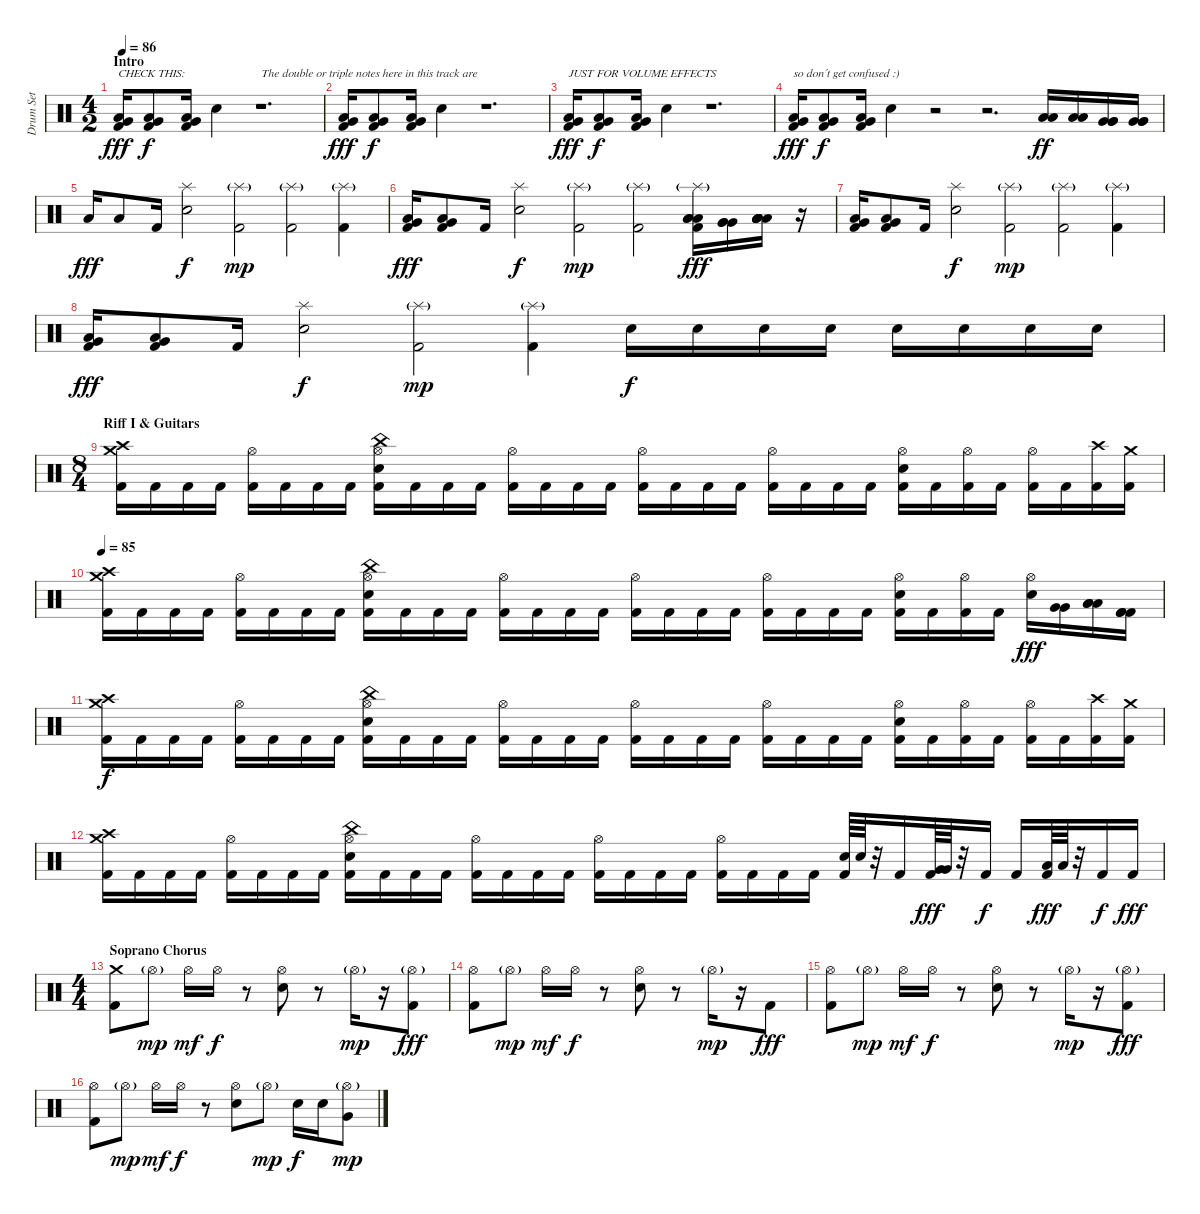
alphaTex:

\track ("Drum Set" "Drum Set") {instrument percussion}
\staff {score}
\articulation defaults
\ts (4 2)
\section ("" "Intro")
\tempo 86
\clef neutral
\ks c
("Very Low Tom (hit)" "Low Floor Tom (hit)" "Kick (hit) 2").16{txt "CHECK THIS:" dy fff} ("Very Low Tom (hit)" "Low Floor Tom (hit)" "Kick (hit) 2").8{dy f} ("Very Low Tom (hit)" "Low Floor Tom (hit)" "Kick (hit) 2").16 "Snare (hit) 2".4 r.1{d txt "The double or triple notes here in this track are "} |
("Very Low Tom (hit)" "Low Floor Tom (hit)" "Kick (hit) 2").16{dy fff} ("Very Low Tom (hit)" "Low Floor Tom (hit)" "Kick (hit) 2").8{dy f} ("Very Low Tom (hit)" "Low Floor Tom (hit)" "Kick (hit) 2").16 "Snare (hit) 2".4 r.1{d} |
("Very Low Tom (hit)" "Low Floor Tom (hit)" "Kick (hit) 2").16{txt "JUST FOR VOLUME EFFECTS" dy fff} ("Very Low Tom (hit)" "Low Floor Tom (hit)" "Kick (hit) 2").8{dy f} ("Very Low Tom (hit)" "Low Floor Tom (hit)" "Kick (hit) 2").16 "Snare (hit) 2".4 r.1{d} |
("Very Low Tom (hit)" "Low Floor Tom (hit)" "Kick (hit) 2").16{txt "so don´t get confused :)" dy fff} ("Very Low Tom (hit)" "Low Floor Tom (hit)" "Kick (hit) 2").8{dy f} ("Very Low Tom (hit)" "Low Floor Tom (hit)" "Kick (hit) 2").16 "Snare (hit) 2".4 r.2 r.2{d} ("Low Tom (hit)" "Low Tom (hit)").16{dy ff} ("Low Tom (hit)" "Low Tom (hit)").16 ("Very Low Tom (hit)" "Very Low Tom (hit)" "Very Low Tom (hit)").16 ("Very Low Tom (hit)" "Very Low Tom (hit)" "Very Low Tom (hit)").16 |
"Low Floor Tom (hit)".16{dy fff} "Low Floor Tom (hit)".8 "Kick (hit) 2".16 ("Splash (hit)" "Snare (hit) 2").2{dy f} ("Splash (hit)"{g} "Kick (hit) 2").2{dy mp} ("Splash (hit)"{g} "Kick (hit) 2").2 ("Splash (hit)"{g} "Kick (hit) 2").4 |
("Very Low Tom (hit)" "Low Floor Tom (hit)" "Kick (hit) 2").16{dy fff} ("Very Low Tom (hit)" "Low Floor Tom (hit)" "Kick (hit) 2").8 "Kick (hit) 2".16 ("Splash (hit)" "Snare (hit) 2").2{dy f} ("Splash (hit)"{g} "Kick (hit) 2").2{dy mp} ("Splash (hit)"{g} "Kick (hit) 2").2 ("Splash (hit)"{g} "Low Tom (hit)" "Low Tom (hit)" "Low Tom (hit)" "Kick (hit) 2").16{dy fff} ("Very Low Tom (hit)" "Very Low Tom (hit)" "Very Low Tom (hit)").16 ("Low Floor Tom (hit)" "Low Floor Tom (hit)" "Low Floor Tom (hit)" "Low Floor Tom (hit)" "Low Floor Tom (hit)").16 r.16 |
("Very Low Tom (hit)" "Low Floor Tom (hit)" "Kick (hit) 2").16 ("Very Low Tom (hit)" "Low Floor Tom (hit)" "Kick (hit) 2").8 "Kick (hit) 2".16 ("Splash (hit)" "Snare (hit) 2").2{dy f} ("Splash (hit)"{g} "Kick (hit) 2").2{dy mp} ("Splash (hit)"{g} "Kick (hit) 2").2 ("Splash (hit)"{g} "Kick (hit) 2").4 |
("Very Low Tom (hit)" "Low Floor Tom (hit)" "Kick (hit) 2").16{dy fff} ("Very Low Tom (hit)" "Low Floor Tom (hit)" "Kick (hit) 2").8 "Kick (hit) 2".16 ("Splash (hit)" "Snare (hit) 2").2{dy f} ("Splash (hit)"{g} "Kick (hit) 2").2{dy mp} ("Splash (hit)"{g} "Kick (hit) 2").4 "Snare (hit) 2".16{dy f} "Snare (hit) 2".16 "Snare (hit) 2".16 "Snare (hit) 2".16 "Snare (hit) 2".16 "Snare (hit) 2".16 "Snare (hit) 2".16 "Snare (hit) 2".16 |
\ts (8 4)
\section ("" "Riff I & Guitars")
("Crash medium (hit)" "Crash high (hit)" "Kick (hit) 2").16 "Kick (hit) 2".16 "Kick (hit) 2".16 "Kick (hit) 2".16 ("Hi-Hat (open)" "Kick (hit) 2").16 "Kick (hit) 2".16 "Kick (hit) 2".16 "Kick (hit) 2".16 ("China (hit)" "Hi-Hat (open)" "Snare (hit) 2" "Kick (hit) 2").16 "Kick (hit) 2".16 "Kick (hit) 2".16 "Kick (hit) 2".16 ("Hi-Hat (open)" "Kick (hit) 2").16 "Kick (hit) 2".16 "Kick (hit) 2".16 "Kick (hit) 2".16 ("Hi-Hat (open)" "Kick (hit) 2").16 "Kick (hit) 2".16 "Kick (hit) 2".16 "Kick (hit) 2".16 ("Hi-Hat (open)" "Kick (hit) 2").16 "Kick (hit) 2".16 "Kick (hit) 2".16 "Kick (hit) 2".16 ("Hi-Hat (open)" "Snare (hit) 2" "Kick (hit) 2").16 "Kick (hit) 2".16 ("Hi-Hat (open)" "Kick (hit) 2").16 "Kick (hit) 2".16 ("Hi-Hat (open)" "Kick (hit) 2").16 "Kick (hit) 2".16 ("Crash high (hit)" "Kick (hit) 2").16 ("Crash medium (hit)" "Kick (hit) 2").16 |
\tempo 85
("Crash medium (hit)" "Crash high (hit)" "Kick (hit) 2").16 "Kick (hit) 2".16 "Kick (hit) 2".16 "Kick (hit) 2".16 ("Hi-Hat (open)" "Kick (hit) 2").16 "Kick (hit) 2".16 "Kick (hit) 2".16 "Kick (hit) 2".16 ("China (hit)" "Hi-Hat (open)" "Snare (hit) 2" "Kick (hit) 2").16 "Kick (hit) 2".16 "Kick (hit) 2".16 "Kick (hit) 2".16 ("Hi-Hat (open)" "Kick (hit) 2").16 "Kick (hit) 2".16 "Kick (hit) 2".16 "Kick (hit) 2".16 ("Hi-Hat (open)" "Kick (hit) 2").16 "Kick (hit) 2".16 "Kick (hit) 2".16 "Kick (hit) 2".16 ("Hi-Hat (open)" "Kick (hit) 2").16 "Kick (hit) 2".16 "Kick (hit) 2".16 "Kick (hit) 2".16 ("Hi-Hat (open)" "Snare (hit) 2" "Kick (hit) 2").16 "Kick (hit) 2".16 ("Hi-Hat (open)" "Kick (hit) 2").16 "Kick (hit) 2".16 ("Hi-Hat (open)" "Snare (hit) 2").16{dy fff} ("Very Low Tom (hit)" "Very Low Tom (hit)").16 ("Low Floor Tom (hit)" "Low Floor Tom (hit)" "Low Floor Tom (hit)").16 ("Kick (hit) 2" "Kick (hit) 2" "Kick (hit) 2").16 |
("Crash medium (hit)" "Crash high (hit)" "Kick (hit) 2").16{dy f} "Kick (hit) 2".16 "Kick (hit) 2".16 "Kick (hit) 2".16 ("Hi-Hat (open)" "Kick (hit) 2").16 "Kick (hit) 2".16 "Kick (hit) 2".16 "Kick (hit) 2".16 ("China (hit)" "Hi-Hat (open)" "Snare (hit) 2" "Kick (hit) 2").16 "Kick (hit) 2".16 "Kick (hit) 2".16 "Kick (hit) 2".16 ("Hi-Hat (open)" "Kick (hit) 2").16 "Kick (hit) 2".16 "Kick (hit) 2".16 "Kick (hit) 2".16 ("Hi-Hat (open)" "Kick (hit) 2").16 "Kick (hit) 2".16 "Kick (hit) 2".16 "Kick (hit) 2".16 ("Hi-Hat (open)" "Kick (hit) 2").16 "Kick (hit) 2".16 "Kick (hit) 2".16 "Kick (hit) 2".16 ("Hi-Hat (open)" "Snare (hit) 2" "Kick (hit) 2").16 "Kick (hit) 2".16 ("Hi-Hat (open)" "Kick (hit) 2").16 "Kick (hit) 2".16 ("Hi-Hat (open)" "Kick (hit) 2").16 "Kick (hit) 2".16 ("Crash high (hit)" "Kick (hit) 2").16 ("Crash medium (hit)" "Kick (hit) 2").16 |
("Crash medium (hit)" "Crash high (hit)" "Kick (hit) 2").16 "Kick (hit) 2".16 "Kick (hit) 2".16 "Kick (hit) 2".16 ("Hi-Hat (open)" "Kick (hit) 2").16 "Kick (hit) 2".16 "Kick (hit) 2".16 "Kick (hit) 2".16 ("China (hit)" "Hi-Hat (open)" "Snare (hit) 2" "Kick (hit) 2").16 "Kick (hit) 2".16 "Kick (hit) 2".16 "Kick (hit) 2".16 ("Hi-Hat (open)" "Kick (hit) 2").16 "Kick (hit) 2".16 "Kick (hit) 2".16 "Kick (hit) 2".16 ("Hi-Hat (open)" "Kick (hit) 2").16 "Kick (hit) 2".16 "Kick (hit) 2".16 "Kick (hit) 2".16 ("Hi-Hat (open)" "Kick (hit) 2").16 "Kick (hit) 2".16 "Kick (hit) 2".16 "Kick (hit) 2".16 ("Snare (hit) 2" "Kick (hit) 2").64 "Snare (hit) 2".64 r.32 "Kick (hit) 2".16 ("Very Low Tom (hit)" "Kick (hit) 2").64{dy fff} "Very Low Tom (hit)".64 r.32 "Kick (hit) 2".16{dy f} "Kick (hit) 2".16 ("Low Floor Tom (hit)" "Kick (hit) 2").64{dy fff} "Low Floor Tom (hit)".64 r.32 "Kick (hit) 2".16{dy f} "Kick (hit) 2".16{dy fff} |
\ts (4 4)
\section ("" "Soprano Chorus")
("Crash medium (hit)" "Kick (hit) 2").8 "Hi-Hat (open)"{g}.8{dy mp} "Hi-Hat (open)".16{dy mf} "Hi-Hat (open)".16{dy f} r.8 ("Hi-Hat (open)" "Snare (hit) 2").8 r.8 "Hi-Hat (open)"{g}.16{dy mp} r.16 ("Hi-Hat (open)"{g} "Kick (hit) 2").8{dy fff} |
("Hi-Hat (open)" "Kick (hit) 2").8 "Hi-Hat (open)"{g}.8{dy mp} "Hi-Hat (open)".16{dy mf} "Hi-Hat (open)".16{dy f} r.8 ("Hi-Hat (open)" "Snare (hit) 2").8 r.8 "Hi-Hat (open)"{g}.16{dy mp} r.16 "Kick (hit) 2".8{dy fff} |
("Hi-Hat (open)" "Kick (hit) 2").8 "Hi-Hat (open)"{g}.8{dy mp} "Hi-Hat (open)".16{dy mf} "Hi-Hat (open)".16{dy f} r.8 ("Hi-Hat (open)" "Snare (hit) 2").8 r.8 "Hi-Hat (open)"{g}.16{dy mp} r.16 ("Hi-Hat (open)"{g} "Kick (hit) 2").8{dy fff} |
("Hi-Hat (open)" "Kick (hit) 2").8 "Hi-Hat (open)"{g}.8{dy mp} "Hi-Hat (open)".16{dy mf} "Hi-Hat (open)".16{dy f} r.8 ("Hi-Hat (open)" "Snare (hit) 2").8 "Hi-Hat (open)"{g}.8{dy mp} "Snare (hit) 2".16{dy f} "Snare (hit) 2".16 ("Hi-Hat (open)"{g} "Very Low Tom (hit)").8{dy mp}
